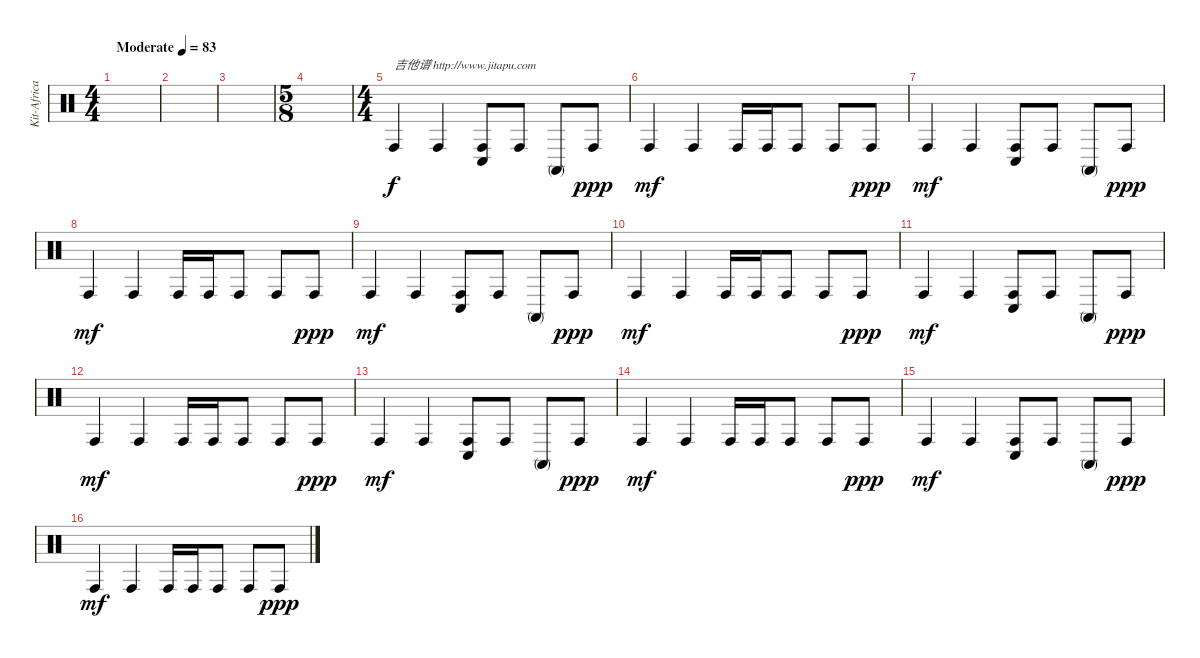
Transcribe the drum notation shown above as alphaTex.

\track ("Kit-Africa" "Kit-Africa") {instrument percussion}
\staff {score}
\articulation defaults
\ts (4 4)
\tempo (83 "Moderate")
\clef neutral
\ks c
|
|
|
\ts (5 8)
|
\ts (4 4)
"Conga high (hit)".4{txt "吉他谱 http://www.jitapu.com"} "Conga high (hit)".4 ("Conga high (hit)" "Conga low (hit)").8 "Conga high (hit)".8 "Conga high (mute)".8 "Conga high (hit)".8{dy ppp} |
"Conga high (hit)".4{dy mf} "Conga high (hit)".4 "Conga high (hit)".16 "Conga high (hit)".16 "Conga high (hit)".8 "Conga high (hit)".8 "Conga high (hit)".8{dy ppp} |
"Conga high (hit)".4{dy mf} "Conga high (hit)".4 ("Conga high (hit)" "Conga low (hit)").8 "Conga high (hit)".8 "Conga high (mute)".8 "Conga high (hit)".8{dy ppp} |
"Conga high (hit)".4{dy mf} "Conga high (hit)".4 "Conga high (hit)".16 "Conga high (hit)".16 "Conga high (hit)".8 "Conga high (hit)".8 "Conga high (hit)".8{dy ppp} |
"Conga high (hit)".4{dy mf} "Conga high (hit)".4 ("Conga high (hit)" "Conga low (hit)").8 "Conga high (hit)".8 "Conga high (mute)".8 "Conga high (hit)".8{dy ppp} |
"Conga high (hit)".4{dy mf} "Conga high (hit)".4 "Conga high (hit)".16 "Conga high (hit)".16 "Conga high (hit)".8 "Conga high (hit)".8 "Conga high (hit)".8{dy ppp} |
"Conga high (hit)".4{dy mf} "Conga high (hit)".4 ("Conga high (hit)" "Conga low (hit)").8 "Conga high (hit)".8 "Conga high (mute)".8 "Conga high (hit)".8{dy ppp} |
"Conga high (hit)".4{dy mf} "Conga high (hit)".4 "Conga high (hit)".16 "Conga high (hit)".16 "Conga high (hit)".8 "Conga high (hit)".8 "Conga high (hit)".8{dy ppp} |
"Conga high (hit)".4{dy mf} "Conga high (hit)".4 ("Conga high (hit)" "Conga low (hit)").8 "Conga high (hit)".8 "Conga high (mute)".8 "Conga high (hit)".8{dy ppp} |
"Conga high (hit)".4{dy mf} "Conga high (hit)".4 "Conga high (hit)".16 "Conga high (hit)".16 "Conga high (hit)".8 "Conga high (hit)".8 "Conga high (hit)".8{dy ppp} |
"Conga high (hit)".4{dy mf} "Conga high (hit)".4 ("Conga high (hit)" "Conga low (hit)").8 "Conga high (hit)".8 "Conga high (mute)".8 "Conga high (hit)".8{dy ppp} |
"Conga high (hit)".4{dy mf} "Conga high (hit)".4 "Conga high (hit)".16 "Conga high (hit)".16 "Conga high (hit)".8 "Conga high (hit)".8 "Conga high (hit)".8{dy ppp}
